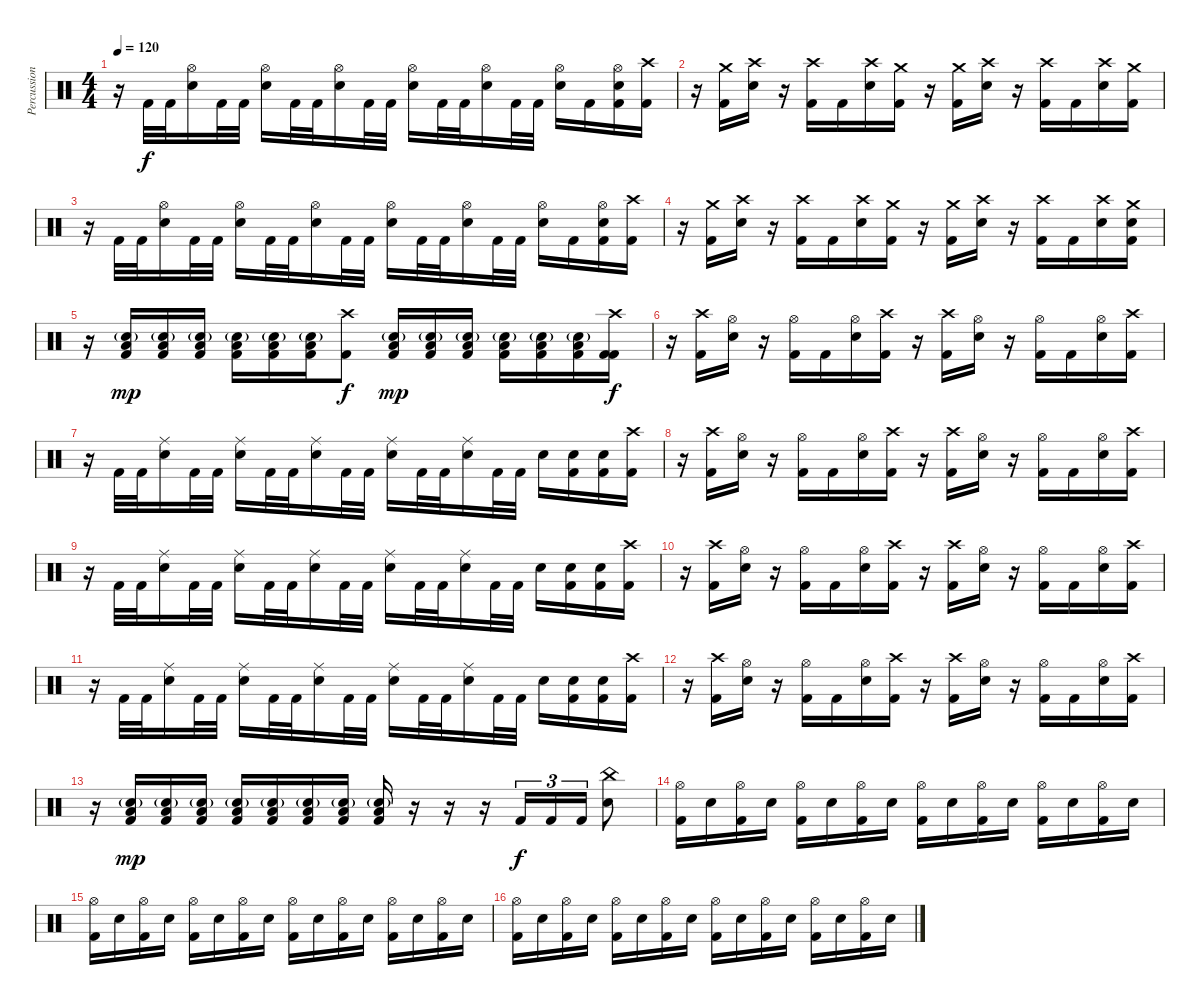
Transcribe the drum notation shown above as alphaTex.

\track ("Percussion" "Percussion") {instrument percussion}
\staff {score}
\articulation defaults
\ts (4 4)
\tempo 120
\clef neutral
\ks c
r.16{dy f} "Kick (hit) 2".32 "Kick (hit) 2".32 ("Hi-Hat (open)" "Electric Snare (hit)").16 "Kick (hit) 2".32 "Kick (hit) 2".32 ("Hi-Hat (open)" "Electric Snare (hit)").16 "Kick (hit) 2".32 "Kick (hit) 2".32 ("Hi-Hat (open)" "Electric Snare (hit)").16 "Kick (hit) 2".32 "Kick (hit) 2".32 ("Hi-Hat (open)" "Electric Snare (hit)").16 "Kick (hit) 2".32 "Kick (hit) 2".32 ("Hi-Hat (open)" "Electric Snare (hit)").16 "Kick (hit) 2".32 "Kick (hit) 2".32 ("Hi-Hat (open)" "Electric Snare (hit)").16 "Kick (hit) 2".16 ("Hi-Hat (open)" "Electric Snare (hit)" "Kick (hit) 2").16 ("Crash high (hit)" "Kick (hit) 2").16 |
r.16 ("Crash medium (hit)" "Kick (hit) 2").16 ("Crash high (hit)" "Electric Snare (hit)").16 r.16 ("Crash high (hit)" "Kick (hit) 2").16 "Kick (hit) 2".16 ("Crash high (hit)" "Electric Snare (hit)").16 ("Crash medium (hit)" "Kick (hit) 2").16 r.16 ("Crash medium (hit)" "Kick (hit) 2").16 ("Crash high (hit)" "Electric Snare (hit)").16 r.16 ("Crash high (hit)" "Kick (hit) 2").16 "Kick (hit) 2".16 ("Crash high (hit)" "Electric Snare (hit)").16 ("Crash medium (hit)" "Kick (hit) 2").16 |
r.16 "Kick (hit) 2".32 "Kick (hit) 2".32 ("Hi-Hat (open)" "Electric Snare (hit)").16 "Kick (hit) 2".32 "Kick (hit) 2".32 ("Hi-Hat (open)" "Electric Snare (hit)").16 "Kick (hit) 2".32 "Kick (hit) 2".32 ("Hi-Hat (open)" "Electric Snare (hit)").16 "Kick (hit) 2".32 "Kick (hit) 2".32 ("Hi-Hat (open)" "Electric Snare (hit)").16 "Kick (hit) 2".32 "Kick (hit) 2".32 ("Hi-Hat (open)" "Electric Snare (hit)").16 "Kick (hit) 2".32 "Kick (hit) 2".32 ("Hi-Hat (open)" "Electric Snare (hit)").16 "Kick (hit) 2".16 ("Hi-Hat (open)" "Electric Snare (hit)" "Kick (hit) 2").16 ("Crash high (hit)" "Kick (hit) 2").16 |
r.16 ("Crash medium (hit)" "Kick (hit) 2").16 ("Crash high (hit)" "Electric Snare (hit)").16 r.16 ("Crash high (hit)" "Kick (hit) 2").16 "Kick (hit) 2".16 ("Crash high (hit)" "Electric Snare (hit)").16 ("Crash medium (hit)" "Kick (hit) 2").16 r.16 ("Crash medium (hit)" "Kick (hit) 2").16 ("Crash high (hit)" "Electric Snare (hit)").16 r.16 ("Crash high (hit)" "Kick (hit) 2").16 "Kick (hit) 2".16 ("Crash high (hit)" "Electric Snare (hit)").16 ("Crash medium (hit)" "Electric Snare (hit)" "Kick (hit) 2").16 |
r.16 ("Low Floor Tom (hit)" "Electric Snare (hit)"{g} "Kick (hit) 2").16{dy mp} ("Low Floor Tom (hit)" "Electric Snare (hit)"{g} "Kick (hit) 2").16 ("Low Floor Tom (hit)" "Electric Snare (hit)"{g} "Kick (hit) 2").16 ("Low Floor Tom (hit)" "Electric Snare (hit)"{g} "Kick (hit) 2").16 ("Low Floor Tom (hit)" "Electric Snare (hit)"{g} "Kick (hit) 2").16 ("Low Floor Tom (hit)" "Electric Snare (hit)"{g} "Kick (hit) 2").16 ("Crash high (hit)" "Kick (hit) 2").8{dy f} ("Low Floor Tom (hit)" "Electric Snare (hit)"{g} "Kick (hit) 2").16{dy mp} ("Low Floor Tom (hit)" "Electric Snare (hit)"{g} "Kick (hit) 2").16 ("Low Floor Tom (hit)" "Electric Snare (hit)"{g} "Kick (hit) 2").16 ("Low Floor Tom (hit)" "Electric Snare (hit)"{g} "Kick (hit) 2").16 ("Low Floor Tom (hit)" "Electric Snare (hit)"{g} "Kick (hit) 2").16 ("Low Floor Tom (hit)" "Electric Snare (hit)"{g} "Kick (hit) 2").16 ("Crash high (hit)" "Kick (hit) 2" "Kick (hit) 2").16{dy f} |
r.16 ("Crash high (hit)" "Kick (hit) 2").16 ("Hi-Hat (open)" "Electric Snare (hit)").16 r.16 ("Hi-Hat (open)" "Kick (hit) 2").16 "Kick (hit) 2".16 ("Hi-Hat (open)" "Electric Snare (hit)").16 ("Crash high (hit)" "Kick (hit) 2").16 r.16 ("Crash high (hit)" "Kick (hit) 2").16 ("Hi-Hat (open)" "Electric Snare (hit)").16 r.16 ("Hi-Hat (open)" "Kick (hit) 2").16 "Kick (hit) 2".16 ("Hi-Hat (open)" "Electric Snare (hit)").16 ("Crash high (hit)" "Kick (hit) 2").16 |
r.16 "Kick (hit) 2".32 "Kick (hit) 2".32 ("Ride (middle)" "Electric Snare (hit)").16 "Kick (hit) 2".32 "Kick (hit) 2".32 ("Ride (middle)" "Electric Snare (hit)").16 "Kick (hit) 2".32 "Kick (hit) 2".32 ("Ride (middle)" "Electric Snare (hit)").16 "Kick (hit) 2".32 "Kick (hit) 2".32 ("Ride (middle)" "Electric Snare (hit)").16 "Kick (hit) 2".32 "Kick (hit) 2".32 ("Ride (middle)" "Electric Snare (hit)").16 "Kick (hit) 2".32 "Kick (hit) 2".32 "Electric Snare (hit)".16 ("Electric Snare (hit)" "Kick (hit) 2").16 ("Electric Snare (hit)" "Kick (hit) 2").16 ("Crash high (hit)" "Kick (hit) 2").16 |
r.16 ("Crash high (hit)" "Kick (hit) 2").16 ("Hi-Hat (open)" "Electric Snare (hit)").16 r.16 ("Hi-Hat (open)" "Kick (hit) 2").16 "Kick (hit) 2".16 ("Hi-Hat (open)" "Electric Snare (hit)").16 ("Crash high (hit)" "Kick (hit) 2").16 r.16 ("Crash high (hit)" "Kick (hit) 2").16 ("Hi-Hat (open)" "Electric Snare (hit)").16 r.16 ("Hi-Hat (open)" "Kick (hit) 2").16 "Kick (hit) 2".16 ("Hi-Hat (open)" "Electric Snare (hit)").16 ("Crash high (hit)" "Kick (hit) 2").16 |
r.16 "Kick (hit) 2".32 "Kick (hit) 2".32 ("Ride (middle)" "Electric Snare (hit)").16 "Kick (hit) 2".32 "Kick (hit) 2".32 ("Ride (middle)" "Electric Snare (hit)").16 "Kick (hit) 2".32 "Kick (hit) 2".32 ("Ride (middle)" "Electric Snare (hit)").16 "Kick (hit) 2".32 "Kick (hit) 2".32 ("Ride (middle)" "Electric Snare (hit)").16 "Kick (hit) 2".32 "Kick (hit) 2".32 ("Ride (middle)" "Electric Snare (hit)").16 "Kick (hit) 2".32 "Kick (hit) 2".32 "Electric Snare (hit)".16 ("Electric Snare (hit)" "Kick (hit) 2").16 ("Electric Snare (hit)" "Kick (hit) 2").16 ("Crash high (hit)" "Kick (hit) 2").16 |
r.16 ("Crash high (hit)" "Kick (hit) 2").16 ("Hi-Hat (open)" "Electric Snare (hit)").16 r.16 ("Hi-Hat (open)" "Kick (hit) 2").16 "Kick (hit) 2".16 ("Hi-Hat (open)" "Electric Snare (hit)").16 ("Crash high (hit)" "Kick (hit) 2").16 r.16 ("Crash high (hit)" "Kick (hit) 2").16 ("Hi-Hat (open)" "Electric Snare (hit)").16 r.16 ("Hi-Hat (open)" "Kick (hit) 2").16 "Kick (hit) 2".16 ("Hi-Hat (open)" "Electric Snare (hit)").16 ("Crash high (hit)" "Kick (hit) 2").16 |
r.16 "Kick (hit) 2".32 "Kick (hit) 2".32 ("Ride (middle)" "Electric Snare (hit)").16 "Kick (hit) 2".32 "Kick (hit) 2".32 ("Ride (middle)" "Electric Snare (hit)").16 "Kick (hit) 2".32 "Kick (hit) 2".32 ("Ride (middle)" "Electric Snare (hit)").16 "Kick (hit) 2".32 "Kick (hit) 2".32 ("Ride (middle)" "Electric Snare (hit)").16 "Kick (hit) 2".32 "Kick (hit) 2".32 ("Ride (middle)" "Electric Snare (hit)").16 "Kick (hit) 2".32 "Kick (hit) 2".32 "Electric Snare (hit)".16 ("Electric Snare (hit)" "Kick (hit) 2").16 ("Electric Snare (hit)" "Kick (hit) 2").16 ("Crash high (hit)" "Kick (hit) 2").16 |
r.16 ("Crash high (hit)" "Kick (hit) 2").16 ("Hi-Hat (open)" "Electric Snare (hit)").16 r.16 ("Hi-Hat (open)" "Kick (hit) 2").16 "Kick (hit) 2".16 ("Hi-Hat (open)" "Electric Snare (hit)").16 ("Crash high (hit)" "Kick (hit) 2").16 r.16 ("Crash high (hit)" "Kick (hit) 2").16 ("Hi-Hat (open)" "Electric Snare (hit)").16 r.16 ("Hi-Hat (open)" "Kick (hit) 2").16 "Kick (hit) 2".16 ("Hi-Hat (open)" "Electric Snare (hit)").16 ("Crash high (hit)" "Kick (hit) 2").16 |
r.16 ("Low Floor Tom (hit)" "Electric Snare (hit)"{g} "Kick (hit) 2").16{dy mp} ("Low Floor Tom (hit)" "Electric Snare (hit)"{g} "Kick (hit) 2").16 ("Low Floor Tom (hit)" "Electric Snare (hit)"{g} "Kick (hit) 2").16 ("Low Floor Tom (hit)" "Electric Snare (hit)"{g} "Kick (hit) 2").16 ("Low Floor Tom (hit)" "Electric Snare (hit)"{g} "Kick (hit) 2").16 ("Low Floor Tom (hit)" "Electric Snare (hit)"{g} "Kick (hit) 2").16 ("Low Floor Tom (hit)" "Electric Snare (hit)"{g} "Kick (hit) 2").16 ("Low Floor Tom (hit)" "Electric Snare (hit)"{g} "Kick (hit) 2").16 r.16 r.16 r.16 "Kick (hit) 2".16{tu (3 2) dy f} "Kick (hit) 2".16{tu (3 2)} "Kick (hit) 2".16{tu (3 2)} ("China (hit)" "Electric Snare (hit)").8 |
("Hi-Hat (open)" "Kick (hit) 2").16 "Electric Snare (hit)".16 ("Hi-Hat (open)" "Kick (hit) 2").16 "Electric Snare (hit)".16 ("Hi-Hat (open)" "Kick (hit) 2").16 "Electric Snare (hit)".16 ("Hi-Hat (open)" "Kick (hit) 2").16 "Electric Snare (hit)".16 ("Hi-Hat (open)" "Kick (hit) 2").16 "Electric Snare (hit)".16 ("Hi-Hat (open)" "Kick (hit) 2").16 "Electric Snare (hit)".16 ("Hi-Hat (open)" "Kick (hit) 2").16 "Electric Snare (hit)".16 ("Hi-Hat (open)" "Kick (hit) 2").16 "Electric Snare (hit)".16 |
("Hi-Hat (open)" "Kick (hit) 2").16 "Electric Snare (hit)".16 ("Hi-Hat (open)" "Kick (hit) 2").16 "Electric Snare (hit)".16 ("Hi-Hat (open)" "Kick (hit) 2").16 "Electric Snare (hit)".16 ("Hi-Hat (open)" "Kick (hit) 2").16 "Electric Snare (hit)".16 ("Hi-Hat (open)" "Kick (hit) 2").16 "Electric Snare (hit)".16 ("Hi-Hat (open)" "Kick (hit) 2").16 "Electric Snare (hit)".16 ("Hi-Hat (open)" "Kick (hit) 2").16 "Electric Snare (hit)".16 ("Hi-Hat (open)" "Kick (hit) 2").16 "Electric Snare (hit)".16 |
("Hi-Hat (open)" "Kick (hit) 2").16 "Electric Snare (hit)".16 ("Hi-Hat (open)" "Kick (hit) 2").16 "Electric Snare (hit)".16 ("Hi-Hat (open)" "Kick (hit) 2").16 "Electric Snare (hit)".16 ("Hi-Hat (open)" "Kick (hit) 2").16 "Electric Snare (hit)".16 ("Hi-Hat (open)" "Kick (hit) 2").16 "Electric Snare (hit)".16 ("Hi-Hat (open)" "Kick (hit) 2").16 "Electric Snare (hit)".16 ("Hi-Hat (open)" "Kick (hit) 2").16 "Electric Snare (hit)".16 ("Hi-Hat (open)" "Kick (hit) 2").16 "Electric Snare (hit)".16
